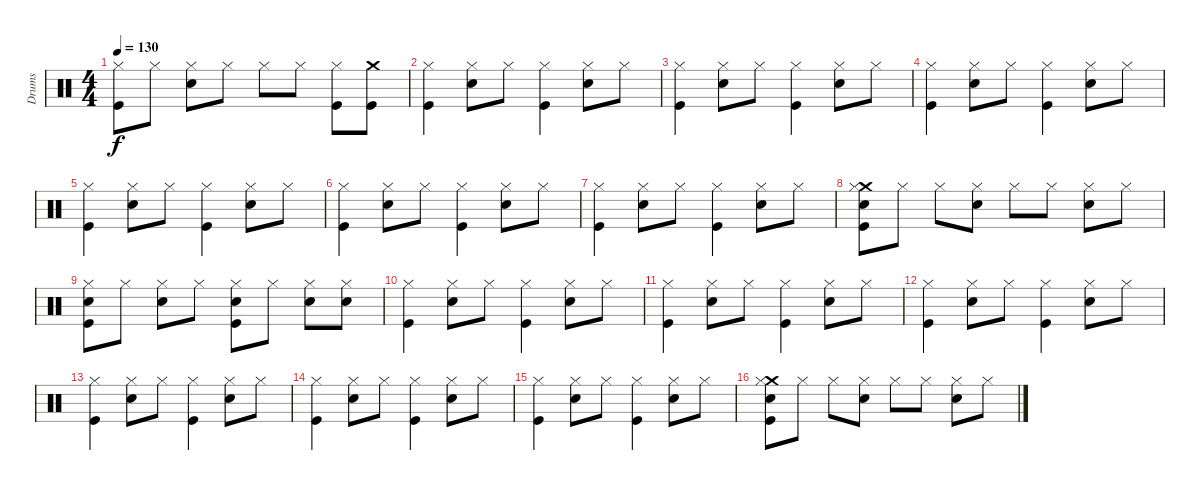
\track ("Drums" "Drums") {instrument percussion}
\staff {score}
\articulation defaults
\ts (4 4)
\tempo 130
\clef neutral
\ks c
("Hi-Hat (closed)" "Kick (hit)").8{dy f} "Hi-Hat (closed)".8 ("Snare (hit) 2" "Hi-Hat (closed)").8 "Hi-Hat (closed)".8 "Hi-Hat (closed)".8 "Hi-Hat (closed)".8 ("Hi-Hat (closed)" "Kick (hit)").8 ("Crash medium (hit)" "Kick (hit)").8 |
("Hi-Hat (closed)" "Kick (hit)").4 ("Snare (hit) 2" "Hi-Hat (closed)").8 "Hi-Hat (closed)".8 ("Hi-Hat (closed)" "Kick (hit)").4 ("Snare (hit) 2" "Hi-Hat (closed)").8 "Hi-Hat (closed)".8 |
("Hi-Hat (closed)" "Kick (hit)").4 ("Snare (hit) 2" "Hi-Hat (closed)").8 "Hi-Hat (closed)".8 ("Hi-Hat (closed)" "Kick (hit)").4 ("Snare (hit) 2" "Hi-Hat (closed)").8 "Hi-Hat (closed)".8 |
("Hi-Hat (closed)" "Kick (hit)").4 ("Snare (hit) 2" "Hi-Hat (closed)").8 "Hi-Hat (closed)".8 ("Hi-Hat (closed)" "Kick (hit)").4 ("Snare (hit) 2" "Hi-Hat (closed)").8 "Hi-Hat (closed)".8 |
("Hi-Hat (closed)" "Kick (hit)").4 ("Snare (hit) 2" "Hi-Hat (closed)").8 "Hi-Hat (closed)".8 ("Hi-Hat (closed)" "Kick (hit)").4 ("Snare (hit) 2" "Hi-Hat (closed)").8 "Hi-Hat (closed)".8 |
("Hi-Hat (closed)" "Kick (hit)").4 ("Snare (hit) 2" "Hi-Hat (closed)").8 "Hi-Hat (closed)".8 ("Hi-Hat (closed)" "Kick (hit)").4 ("Snare (hit) 2" "Hi-Hat (closed)").8 "Hi-Hat (closed)".8 |
("Hi-Hat (closed)" "Kick (hit)").4 ("Snare (hit) 2" "Hi-Hat (closed)").8 "Hi-Hat (closed)".8 ("Hi-Hat (closed)" "Kick (hit)").4 ("Snare (hit) 2" "Hi-Hat (closed)").8 "Hi-Hat (closed)".8 |
("Crash medium (hit)" "Snare (hit) 2" "Hi-Hat (closed)" "Kick (hit)").8 "Hi-Hat (closed)".8 "Hi-Hat (closed)".8 ("Snare (hit) 2" "Hi-Hat (closed)").8 "Hi-Hat (closed)".8 "Hi-Hat (closed)".8 ("Snare (hit) 2" "Hi-Hat (closed)").8 "Hi-Hat (closed)".8 |
("Snare (hit) 2" "Hi-Hat (closed)" "Kick (hit)").8 "Hi-Hat (closed)".8 ("Snare (hit) 2" "Hi-Hat (closed)").8 "Hi-Hat (closed)".8 ("Snare (hit) 2" "Hi-Hat (closed)" "Kick (hit)").8 "Hi-Hat (closed)".8 ("Snare (hit) 2" "Hi-Hat (closed)").8 ("Snare (hit) 2" "Hi-Hat (closed)").8 |
("Hi-Hat (closed)" "Kick (hit)").4 ("Snare (hit) 2" "Hi-Hat (closed)").8 "Hi-Hat (closed)".8 ("Hi-Hat (closed)" "Kick (hit)").4 ("Snare (hit) 2" "Hi-Hat (closed)").8 "Hi-Hat (closed)".8 |
("Hi-Hat (closed)" "Kick (hit)").4 ("Snare (hit) 2" "Hi-Hat (closed)").8 "Hi-Hat (closed)".8 ("Hi-Hat (closed)" "Kick (hit)").4 ("Snare (hit) 2" "Hi-Hat (closed)").8 "Hi-Hat (closed)".8 |
("Hi-Hat (closed)" "Kick (hit)").4 ("Snare (hit) 2" "Hi-Hat (closed)").8 "Hi-Hat (closed)".8 ("Hi-Hat (closed)" "Kick (hit)").4 ("Snare (hit) 2" "Hi-Hat (closed)").8 "Hi-Hat (closed)".8 |
("Hi-Hat (closed)" "Kick (hit)").4 ("Snare (hit) 2" "Hi-Hat (closed)").8 "Hi-Hat (closed)".8 ("Hi-Hat (closed)" "Kick (hit)").4 ("Snare (hit) 2" "Hi-Hat (closed)").8 "Hi-Hat (closed)".8 |
("Hi-Hat (closed)" "Kick (hit)").4 ("Snare (hit) 2" "Hi-Hat (closed)").8 "Hi-Hat (closed)".8 ("Hi-Hat (closed)" "Kick (hit)").4 ("Snare (hit) 2" "Hi-Hat (closed)").8 "Hi-Hat (closed)".8 |
("Hi-Hat (closed)" "Kick (hit)").4 ("Snare (hit) 2" "Hi-Hat (closed)").8 "Hi-Hat (closed)".8 ("Hi-Hat (closed)" "Kick (hit)").4 ("Snare (hit) 2" "Hi-Hat (closed)").8 "Hi-Hat (closed)".8 |
("Crash medium (hit)" "Snare (hit) 2" "Hi-Hat (closed)" "Kick (hit)").8 "Hi-Hat (closed)".8 "Hi-Hat (closed)".8 ("Snare (hit) 2" "Hi-Hat (closed)").8 "Hi-Hat (closed)".8 "Hi-Hat (closed)".8 ("Snare (hit) 2" "Hi-Hat (closed)").8 "Hi-Hat (closed)".8
